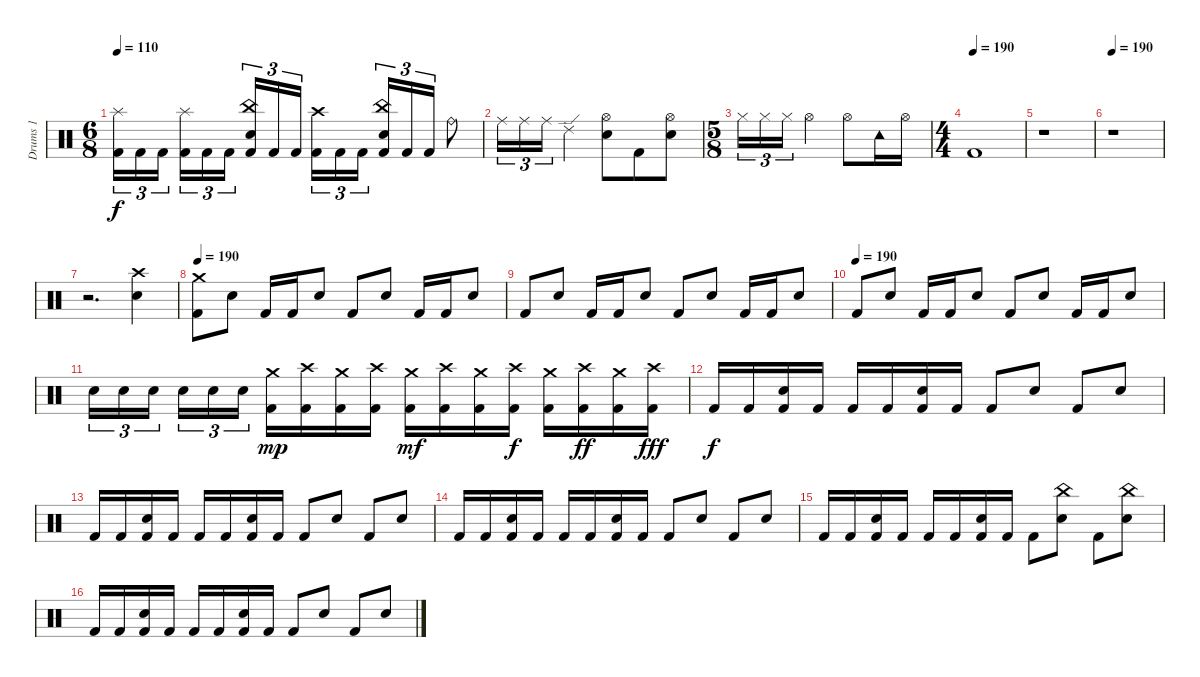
\track ("Drums 1" "Drums 1") {instrument percussion}
\staff {score}
\articulation defaults
\ts (6 8)
\tempo 110
\clef neutral
\ks c
("Splash (hit)" "Kick (hit) 2").16{tu (3 2) dy f} "Kick (hit) 2".16{tu (3 2)} "Kick (hit) 2".16{tu (3 2)} ("Splash (hit)" "Kick (hit) 2").16{tu (3 2)} "Kick (hit) 2".16{tu (3 2)} "Kick (hit) 2".16{tu (3 2)} ("China (hit)" "Snare (hit) 2" "Kick (hit) 2").16{tu (3 2)} "Kick (hit) 2".16{tu (3 2)} "Kick (hit) 2".16{tu (3 2)} ("Crash high (hit)" "Kick (hit) 2").16{tu (3 2)} "Kick (hit) 2".16{tu (3 2)} "Kick (hit) 2".16{tu (3 2)} ("China (hit)" "Snare (hit) 2" "Kick (hit) 2").16{tu (3 2)} "Kick (hit) 2".16{tu (3 2)} "Kick (hit) 2".16{tu (3 2)} "Ride (bell)".8 |
"Ride (middle)".16{tu (3 2)} "Ride (middle)".16{tu (3 2)} "Ride (middle)".16{tu (3 2)} "Ride (edge) 2".4 ("Hi-Hat (open)" "Snare (hit) 2").8 "Kick (hit) 2".8 ("Hi-Hat (open)" "Snare (hit) 2").8 |
\ts (5 8)
"Hi-Hat (closed)".16{tu (3 2)} "Hi-Hat (closed)".16{tu (3 2)} "Hi-Hat (closed)".16{tu (3 2)} "Hi-Hat (open)".4 "Hi-Hat (open)".8 "Tambourine (hit)".16 "Hi-Hat (open)".16 |
\ts (4 4)
\tempo (190)
"Kick (hit) 2".1 |
r.1 |
\tempo 190
r.1 |
r.2{d} ("Crash high (hit)" "Snare (hit) 2").4 |
\tempo 190
("Crash medium (hit)" "Kick (hit) 2").8 "Snare (hit) 2".8 "Kick (hit) 2".16 "Kick (hit) 2".16 "Snare (hit) 2".8 "Kick (hit) 2".8 "Snare (hit) 2".8 "Kick (hit) 2".16 "Kick (hit) 2".16 "Snare (hit) 2".8 |
"Kick (hit) 2".8 "Snare (hit) 2".8 "Kick (hit) 2".16 "Kick (hit) 2".16 "Snare (hit) 2".8 "Kick (hit) 2".8 "Snare (hit) 2".8 "Kick (hit) 2".16 "Kick (hit) 2".16 "Snare (hit) 2".8 |
\tempo (190)
"Kick (hit) 2".8 "Snare (hit) 2".8 "Kick (hit) 2".16 "Kick (hit) 2".16 "Snare (hit) 2".8 "Kick (hit) 2".8 "Snare (hit) 2".8 "Kick (hit) 2".16 "Kick (hit) 2".16 "Snare (hit) 2".8 |
"Snare (hit) 2".16{tu (3 2)} "Snare (hit) 2".16{tu (3 2)} "Snare (hit) 2".16{tu (3 2)} "Snare (hit) 2".16{tu (3 2)} "Snare (hit) 2".16{tu (3 2)} "Snare (hit) 2".16{tu (3 2)} ("Crash medium (hit)" "Kick (hit) 2").16{dy mp} ("Crash high (hit)" "Kick (hit) 2").16 ("Crash medium (hit)" "Kick (hit) 2").16 ("Crash high (hit)" "Kick (hit) 2").16 ("Crash medium (hit)" "Kick (hit) 2").16{dy mf} ("Crash high (hit)" "Kick (hit) 2").16 ("Crash medium (hit)" "Kick (hit) 2").16 ("Crash high (hit)" "Kick (hit) 2").16{dy f} ("Crash medium (hit)" "Kick (hit) 2").16 ("Crash high (hit)" "Kick (hit) 2").16{dy ff} ("Crash medium (hit)" "Kick (hit) 2").16 ("Crash high (hit)" "Kick (hit) 2").16{dy fff} |
"Kick (hit) 2".16{dy f} "Kick (hit) 2".16 ("Snare (hit) 2" "Kick (hit) 2").16 "Kick (hit) 2".16 "Kick (hit) 2".16 "Kick (hit) 2".16 ("Snare (hit) 2" "Kick (hit) 2").16 "Kick (hit) 2".16 "Kick (hit) 2".8 "Snare (hit) 2".8 "Kick (hit) 2".8 "Snare (hit) 2".8 |
"Kick (hit) 2".16 "Kick (hit) 2".16 ("Snare (hit) 2" "Kick (hit) 2").16 "Kick (hit) 2".16 "Kick (hit) 2".16 "Kick (hit) 2".16 ("Snare (hit) 2" "Kick (hit) 2").16 "Kick (hit) 2".16 "Kick (hit) 2".8 "Snare (hit) 2".8 "Kick (hit) 2".8 "Snare (hit) 2".8 |
"Kick (hit) 2".16 "Kick (hit) 2".16 ("Snare (hit) 2" "Kick (hit) 2").16 "Kick (hit) 2".16 "Kick (hit) 2".16 "Kick (hit) 2".16 ("Snare (hit) 2" "Kick (hit) 2").16 "Kick (hit) 2".16 "Kick (hit) 2".8 "Snare (hit) 2".8 "Kick (hit) 2".8 "Snare (hit) 2".8 |
"Kick (hit) 2".16 "Kick (hit) 2".16 ("Snare (hit) 2" "Kick (hit) 2").16 "Kick (hit) 2".16 "Kick (hit) 2".16 "Kick (hit) 2".16 ("Snare (hit) 2" "Kick (hit) 2").16 "Kick (hit) 2".16 "Kick (hit) 2".8 ("China (hit)" "Snare (hit) 2").8 "Kick (hit) 2".8 ("China (hit)" "Snare (hit) 2").8 |
"Kick (hit) 2".16 "Kick (hit) 2".16 ("Snare (hit) 2" "Kick (hit) 2").16 "Kick (hit) 2".16 "Kick (hit) 2".16 "Kick (hit) 2".16 ("Snare (hit) 2" "Kick (hit) 2").16 "Kick (hit) 2".16 "Kick (hit) 2".8 "Snare (hit) 2".8 "Kick (hit) 2".8 "Snare (hit) 2".8
